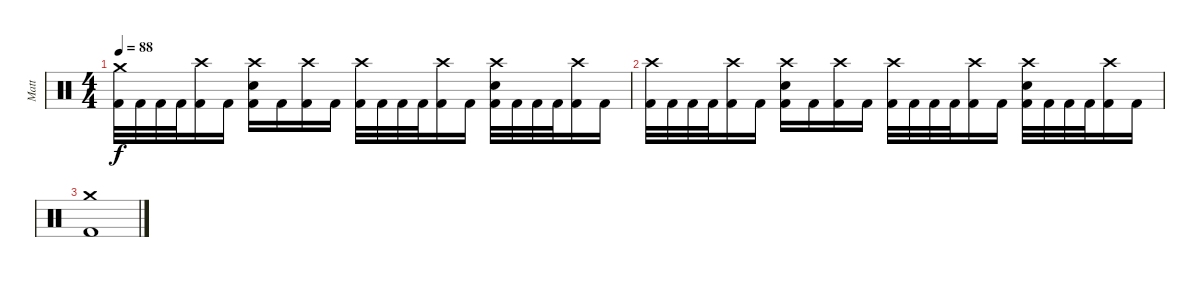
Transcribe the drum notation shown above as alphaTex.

\track ("Matt" "Matt") {instrument percussion}
\staff {score}
\articulation defaults
\ts (4 4)
\tempo 88
\clef neutral
\ks c
("Crash medium (hit)" "Kick (hit) 2").32{dy f} "Kick (hit) 2".32 "Kick (hit) 2".32 "Kick (hit) 2".32 ("Crash high (hit)" "Kick (hit) 2").16 "Kick (hit) 2".16 ("Crash high (hit)" "Electric Snare (hit)" "Kick (hit) 2").16 "Kick (hit) 2".16 ("Crash high (hit)" "Kick (hit) 2").16 "Kick (hit) 2".16 ("Crash high (hit)" "Kick (hit) 2").32 "Kick (hit) 2".32 "Kick (hit) 2".32 "Kick (hit) 2".32 ("Crash high (hit)" "Kick (hit) 2").16 "Kick (hit) 2".16 ("Crash high (hit)" "Electric Snare (hit)" "Kick (hit) 2").32 "Kick (hit) 2".32 "Kick (hit) 2".32 "Kick (hit) 2".32 ("Crash high (hit)" "Kick (hit) 2").16 "Kick (hit) 2".16 |
("Crash high (hit)" "Kick (hit) 2").32 "Kick (hit) 2".32 "Kick (hit) 2".32 "Kick (hit) 2".32 ("Crash high (hit)" "Kick (hit) 2").16 "Kick (hit) 2".16 ("Crash high (hit)" "Electric Snare (hit)" "Kick (hit) 2").16 "Kick (hit) 2".16 ("Crash high (hit)" "Kick (hit) 2").16 "Kick (hit) 2".16 ("Crash high (hit)" "Kick (hit) 2").32 "Kick (hit) 2".32 "Kick (hit) 2".32 "Kick (hit) 2".32 ("Crash high (hit)" "Kick (hit) 2").16 "Kick (hit) 2".16 ("Crash high (hit)" "Electric Snare (hit)" "Kick (hit) 2").32 "Kick (hit) 2".32 "Kick (hit) 2".32 "Kick (hit) 2".32 ("Crash high (hit)" "Kick (hit) 2").16 "Kick (hit) 2".16 |
("Crash medium (hit)" "Kick (hit) 2").1
